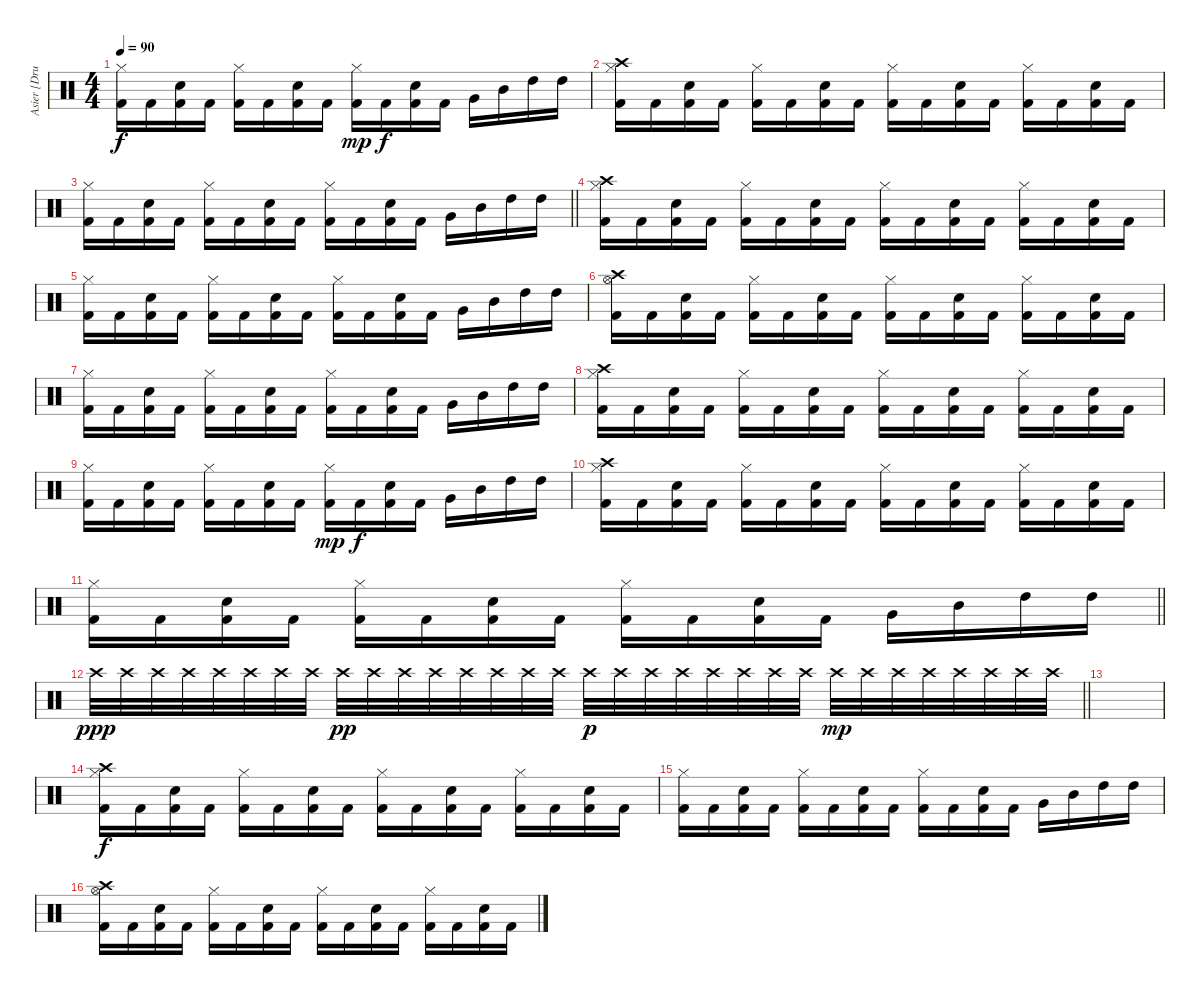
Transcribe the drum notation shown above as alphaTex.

\track ("Asier [Drums]" "Asier [Dru") {instrument percussion}
\staff {score}
\articulation defaults
\ts (4 4)
\tempo 90
\clef neutral
\ks c
("Hi-Hat (closed)" "Kick (hit) 2").16{dy f} "Kick (hit) 2".16 ("Snare (hit) 2" "Kick (hit) 2").16 "Kick (hit) 2".16 ("Hi-Hat (closed)" "Kick (hit) 2").16 "Kick (hit) 2".16 ("Snare (hit) 2" "Kick (hit) 2").16 "Kick (hit) 2".16 ("Hi-Hat (closed)" "Kick (hit) 2").16{dy mp} "Kick (hit) 2".16{dy f} ("Snare (hit) 2" "Kick (hit) 2").16 "Kick (hit) 2".16 "Very Low Tom (hit)".16 "Mid Tom (hit)".16 "High Tom (hit)".16 "High Tom (hit)".16 |
("Crash high (hit)" "Hi-Hat (closed)" "Kick (hit) 2").16 "Kick (hit) 2".16 ("Snare (hit) 2" "Kick (hit) 2").16 "Kick (hit) 2".16 ("Hi-Hat (closed)" "Kick (hit) 2").16 "Kick (hit) 2".16 ("Snare (hit) 2" "Kick (hit) 2").16 "Kick (hit) 2".16 ("Hi-Hat (closed)" "Kick (hit) 2").16 "Kick (hit) 2".16 ("Snare (hit) 2" "Kick (hit) 2").16 "Kick (hit) 2".16 ("Hi-Hat (closed)" "Kick (hit) 2").16 "Kick (hit) 2".16 ("Snare (hit) 2" "Kick (hit) 2").16 "Kick (hit) 2".16 |
\barLineRight lightlight
("Hi-Hat (closed)" "Kick (hit) 2").16 "Kick (hit) 2".16 ("Snare (hit) 2" "Kick (hit) 2").16 "Kick (hit) 2".16 ("Hi-Hat (closed)" "Kick (hit) 2").16 "Kick (hit) 2".16 ("Snare (hit) 2" "Kick (hit) 2").16 "Kick (hit) 2".16 ("Hi-Hat (closed)" "Kick (hit) 2").16 "Kick (hit) 2".16 ("Snare (hit) 2" "Kick (hit) 2").16 "Kick (hit) 2".16 "Very Low Tom (hit)".16 "Mid Tom (hit)".16 "High Tom (hit)".16 "High Tom (hit)".16 |
("Crash high (hit)" "Hi-Hat (closed)" "Kick (hit) 2").16 "Kick (hit) 2".16 ("Snare (hit) 2" "Kick (hit) 2").16 "Kick (hit) 2".16 ("Hi-Hat (closed)" "Kick (hit) 2").16 "Kick (hit) 2".16 ("Snare (hit) 2" "Kick (hit) 2").16 "Kick (hit) 2".16 ("Hi-Hat (closed)" "Kick (hit) 2").16 "Kick (hit) 2".16 ("Snare (hit) 2" "Kick (hit) 2").16 "Kick (hit) 2".16 ("Hi-Hat (closed)" "Kick (hit) 2").16 "Kick (hit) 2".16 ("Snare (hit) 2" "Kick (hit) 2").16 "Kick (hit) 2".16 |
("Hi-Hat (closed)" "Kick (hit) 2").16 "Kick (hit) 2".16 ("Snare (hit) 2" "Kick (hit) 2").16 "Kick (hit) 2".16 ("Hi-Hat (closed)" "Kick (hit) 2").16 "Kick (hit) 2".16 ("Snare (hit) 2" "Kick (hit) 2").16 "Kick (hit) 2".16 ("Hi-Hat (closed)" "Kick (hit) 2").16 "Kick (hit) 2".16 ("Snare (hit) 2" "Kick (hit) 2").16 "Kick (hit) 2".16 "Very Low Tom (hit)".16 "Mid Tom (hit)".16 "High Tom (hit)".16 "High Tom (hit)".16 |
("Crash high (hit)" "Hi-Hat (open)" "Kick (hit) 2").16 "Kick (hit) 2".16 ("Snare (hit) 2" "Kick (hit) 2").16 "Kick (hit) 2".16 ("Hi-Hat (closed)" "Kick (hit) 2").16 "Kick (hit) 2".16 ("Snare (hit) 2" "Kick (hit) 2").16 "Kick (hit) 2".16 ("Hi-Hat (closed)" "Kick (hit) 2").16 "Kick (hit) 2".16 ("Snare (hit) 2" "Kick (hit) 2").16 "Kick (hit) 2".16 ("Hi-Hat (closed)" "Kick (hit) 2").16 "Kick (hit) 2".16 ("Snare (hit) 2" "Kick (hit) 2").16 "Kick (hit) 2".16 |
("Hi-Hat (closed)" "Kick (hit) 2").16 "Kick (hit) 2".16 ("Snare (hit) 2" "Kick (hit) 2").16 "Kick (hit) 2".16 ("Hi-Hat (closed)" "Kick (hit) 2").16 "Kick (hit) 2".16 ("Snare (hit) 2" "Kick (hit) 2").16 "Kick (hit) 2".16 ("Hi-Hat (closed)" "Kick (hit) 2").16 "Kick (hit) 2".16 ("Snare (hit) 2" "Kick (hit) 2").16 "Kick (hit) 2".16 "Very Low Tom (hit)".16 "Mid Tom (hit)".16 "High Tom (hit)".16 "High Tom (hit)".16 |
("Crash high (hit)" "Hi-Hat (closed)" "Kick (hit) 2").16 "Kick (hit) 2".16 ("Snare (hit) 2" "Kick (hit) 2").16 "Kick (hit) 2".16 ("Hi-Hat (closed)" "Kick (hit) 2").16 "Kick (hit) 2".16 ("Snare (hit) 2" "Kick (hit) 2").16 "Kick (hit) 2".16 ("Hi-Hat (closed)" "Kick (hit) 2").16 "Kick (hit) 2".16 ("Snare (hit) 2" "Kick (hit) 2").16 "Kick (hit) 2".16 ("Hi-Hat (closed)" "Kick (hit) 2").16 "Kick (hit) 2".16 ("Snare (hit) 2" "Kick (hit) 2").16 "Kick (hit) 2".16 |
("Hi-Hat (closed)" "Kick (hit) 2").16 "Kick (hit) 2".16 ("Snare (hit) 2" "Kick (hit) 2").16 "Kick (hit) 2".16 ("Hi-Hat (closed)" "Kick (hit) 2").16 "Kick (hit) 2".16 ("Snare (hit) 2" "Kick (hit) 2").16 "Kick (hit) 2".16 ("Hi-Hat (closed)" "Kick (hit) 2").16{dy mp} "Kick (hit) 2".16{dy f} ("Snare (hit) 2" "Kick (hit) 2").16 "Kick (hit) 2".16 "Very Low Tom (hit)".16 "Mid Tom (hit)".16 "High Tom (hit)".16 "High Tom (hit)".16 |
("Crash high (hit)" "Hi-Hat (closed)" "Kick (hit) 2").16 "Kick (hit) 2".16 ("Snare (hit) 2" "Kick (hit) 2").16 "Kick (hit) 2".16 ("Hi-Hat (closed)" "Kick (hit) 2").16 "Kick (hit) 2".16 ("Snare (hit) 2" "Kick (hit) 2").16 "Kick (hit) 2".16 ("Hi-Hat (closed)" "Kick (hit) 2").16 "Kick (hit) 2".16 ("Snare (hit) 2" "Kick (hit) 2").16 "Kick (hit) 2".16 ("Hi-Hat (closed)" "Kick (hit) 2").16 "Kick (hit) 2".16 ("Snare (hit) 2" "Kick (hit) 2").16 "Kick (hit) 2".16 |
\barLineRight lightlight
("Hi-Hat (closed)" "Kick (hit) 2").16 "Kick (hit) 2".16 ("Snare (hit) 2" "Kick (hit) 2").16 "Kick (hit) 2".16 ("Hi-Hat (closed)" "Kick (hit) 2").16 "Kick (hit) 2".16 ("Snare (hit) 2" "Kick (hit) 2").16 "Kick (hit) 2".16 ("Hi-Hat (closed)" "Kick (hit) 2").16 "Kick (hit) 2".16 ("Snare (hit) 2" "Kick (hit) 2").16 "Kick (hit) 2".16 "Very Low Tom (hit)".16 "Mid Tom (hit)".16 "High Tom (hit)".16 "High Tom (hit)".16 |
\barLineRight lightlight "Crash high (hit)".32{dy ppp} "Crash high (hit)".32 "Crash high (hit)".32 "Crash high (hit)".32 "Crash high (hit)".32 "Crash high (hit)".32 "Crash high (hit)".32 "Crash high (hit)".32 "Crash high (hit)".32{dy pp} "Crash high (hit)".32 "Crash high (hit)".32 "Crash high (hit)".32 "Crash high (hit)".32 "Crash high (hit)".32 "Crash high (hit)".32 "Crash high (hit)".32 "Crash high (hit)".32{dy p} "Crash high (hit)".32 "Crash high (hit)".32 "Crash high (hit)".32 "Crash high (hit)".32 "Crash high (hit)".32 "Crash high (hit)".32 "Crash high (hit)".32 "Crash high (hit)".32{dy mp} "Crash high (hit)".32 "Crash high (hit)".32 "Crash high (hit)".32 "Crash high (hit)".32 "Crash high (hit)".32 "Crash high (hit)".32 "Crash high (hit)".32
|
|
("Crash high (hit)" "Hi-Hat (closed)" "Kick (hit) 2").16{dy f} "Kick (hit) 2".16 ("Snare (hit) 2" "Kick (hit) 2").16 "Kick (hit) 2".16 ("Hi-Hat (closed)" "Kick (hit) 2").16 "Kick (hit) 2".16 ("Snare (hit) 2" "Kick (hit) 2").16 "Kick (hit) 2".16 ("Hi-Hat (closed)" "Kick (hit) 2").16 "Kick (hit) 2".16 ("Snare (hit) 2" "Kick (hit) 2").16 "Kick (hit) 2".16 ("Hi-Hat (closed)" "Kick (hit) 2").16 "Kick (hit) 2".16 ("Snare (hit) 2" "Kick (hit) 2").16 "Kick (hit) 2".16 |
("Hi-Hat (closed)" "Kick (hit) 2").16 "Kick (hit) 2".16 ("Snare (hit) 2" "Kick (hit) 2").16 "Kick (hit) 2".16 ("Hi-Hat (closed)" "Kick (hit) 2").16 "Kick (hit) 2".16 ("Snare (hit) 2" "Kick (hit) 2").16 "Kick (hit) 2".16 ("Hi-Hat (closed)" "Kick (hit) 2").16 "Kick (hit) 2".16 ("Snare (hit) 2" "Kick (hit) 2").16 "Kick (hit) 2".16 "Very Low Tom (hit)".16 "Mid Tom (hit)".16 "High Tom (hit)".16 "High Tom (hit)".16 |
("Crash high (hit)" "Hi-Hat (open)" "Kick (hit) 2").16 "Kick (hit) 2".16 ("Snare (hit) 2" "Kick (hit) 2").16 "Kick (hit) 2".16 ("Hi-Hat (closed)" "Kick (hit) 2").16 "Kick (hit) 2".16 ("Snare (hit) 2" "Kick (hit) 2").16 "Kick (hit) 2".16 ("Hi-Hat (closed)" "Kick (hit) 2").16 "Kick (hit) 2".16 ("Snare (hit) 2" "Kick (hit) 2").16 "Kick (hit) 2".16 ("Hi-Hat (closed)" "Kick (hit) 2").16 "Kick (hit) 2".16 ("Snare (hit) 2" "Kick (hit) 2").16 "Kick (hit) 2".16
